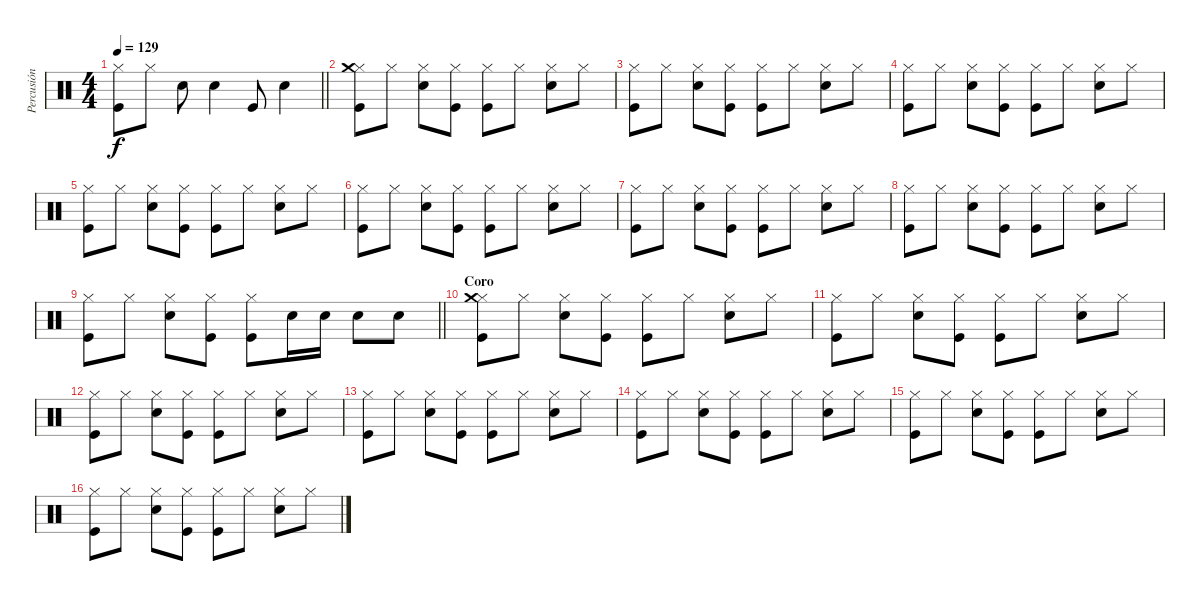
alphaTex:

\track ("Percusión" "Percusión") {instrument percussion}
\staff {score}
\articulation defaults
\ts (4 4)
\tempo 129
\clef neutral
\barLineRight lightlight
\ks c
("Hi-Hat (closed)" "Kick (hit)").8{dy f} "Hi-Hat (closed)".8 "Electric Snare (hit)".8 "Electric Snare (hit)".4 "Kick (hit)".8 "Electric Snare (hit)".4 |
\section ("" "")
("Hi-Hat (closed)" "Kick (hit)" "Crash medium (hit)").8 "Hi-Hat (closed)".8 ("Hi-Hat (closed)" "Electric Snare (hit)").8 ("Hi-Hat (closed)" "Kick (hit)").8 ("Hi-Hat (closed)" "Kick (hit)").8 "Hi-Hat (closed)".8 ("Hi-Hat (closed)" "Electric Snare (hit)").8 "Hi-Hat (closed)".8 |
("Hi-Hat (closed)" "Kick (hit)").8 "Hi-Hat (closed)".8 ("Hi-Hat (closed)" "Electric Snare (hit)").8 ("Hi-Hat (closed)" "Kick (hit)").8 ("Hi-Hat (closed)" "Kick (hit)").8 "Hi-Hat (closed)".8 ("Hi-Hat (closed)" "Electric Snare (hit)").8 "Hi-Hat (closed)".8 |
("Hi-Hat (closed)" "Kick (hit)").8 "Hi-Hat (closed)".8 ("Hi-Hat (closed)" "Electric Snare (hit)").8 ("Hi-Hat (closed)" "Kick (hit)").8 ("Hi-Hat (closed)" "Kick (hit)").8 "Hi-Hat (closed)".8 ("Hi-Hat (closed)" "Electric Snare (hit)").8 "Hi-Hat (closed)".8 |
("Hi-Hat (closed)" "Kick (hit)").8 "Hi-Hat (closed)".8 ("Hi-Hat (closed)" "Electric Snare (hit)").8 ("Hi-Hat (closed)" "Kick (hit)").8 ("Hi-Hat (closed)" "Kick (hit)").8 "Hi-Hat (closed)".8 ("Hi-Hat (closed)" "Electric Snare (hit)").8 "Hi-Hat (closed)".8 |
("Hi-Hat (closed)" "Kick (hit)").8 "Hi-Hat (closed)".8 ("Hi-Hat (closed)" "Electric Snare (hit)").8 ("Hi-Hat (closed)" "Kick (hit)").8 ("Hi-Hat (closed)" "Kick (hit)").8 "Hi-Hat (closed)".8 ("Hi-Hat (closed)" "Electric Snare (hit)").8 "Hi-Hat (closed)".8 |
("Hi-Hat (closed)" "Kick (hit)").8 "Hi-Hat (closed)".8 ("Hi-Hat (closed)" "Electric Snare (hit)").8 ("Hi-Hat (closed)" "Kick (hit)").8 ("Hi-Hat (closed)" "Kick (hit)").8 "Hi-Hat (closed)".8 ("Hi-Hat (closed)" "Electric Snare (hit)").8 "Hi-Hat (closed)".8 |
("Hi-Hat (closed)" "Kick (hit)").8 "Hi-Hat (closed)".8 ("Hi-Hat (closed)" "Electric Snare (hit)").8 ("Hi-Hat (closed)" "Kick (hit)").8 ("Hi-Hat (closed)" "Kick (hit)").8 "Hi-Hat (closed)".8 ("Hi-Hat (closed)" "Electric Snare (hit)").8 "Hi-Hat (closed)".8 |
\barLineRight lightlight
("Hi-Hat (closed)" "Kick (hit)").8 "Hi-Hat (closed)".8 ("Hi-Hat (closed)" "Electric Snare (hit)").8 ("Hi-Hat (closed)" "Kick (hit)").8 ("Hi-Hat (closed)" "Kick (hit)").8 "Electric Snare (hit)".16 "Electric Snare (hit)".16 "Electric Snare (hit)".8 "Electric Snare (hit)".8 |
\section ("" "Coro")
("Hi-Hat (closed)" "Kick (hit)" "Crash medium (hit)").8 "Hi-Hat (closed)".8 ("Hi-Hat (closed)" "Electric Snare (hit)").8 ("Hi-Hat (closed)" "Kick (hit)").8 ("Hi-Hat (closed)" "Kick (hit)").8 "Hi-Hat (closed)".8 ("Hi-Hat (closed)" "Electric Snare (hit)").8 "Hi-Hat (closed)".8 |
("Hi-Hat (closed)" "Kick (hit)").8 "Hi-Hat (closed)".8 ("Hi-Hat (closed)" "Electric Snare (hit)").8 ("Hi-Hat (closed)" "Kick (hit)").8 ("Hi-Hat (closed)" "Kick (hit)").8 "Hi-Hat (closed)".8 ("Hi-Hat (closed)" "Electric Snare (hit)").8 "Hi-Hat (closed)".8 |
("Hi-Hat (closed)" "Kick (hit)").8 "Hi-Hat (closed)".8 ("Hi-Hat (closed)" "Electric Snare (hit)").8 ("Hi-Hat (closed)" "Kick (hit)").8 ("Hi-Hat (closed)" "Kick (hit)").8 "Hi-Hat (closed)".8 ("Hi-Hat (closed)" "Electric Snare (hit)").8 "Hi-Hat (closed)".8 |
("Hi-Hat (closed)" "Kick (hit)").8 "Hi-Hat (closed)".8 ("Hi-Hat (closed)" "Electric Snare (hit)").8 ("Hi-Hat (closed)" "Kick (hit)").8 ("Hi-Hat (closed)" "Kick (hit)").8 "Hi-Hat (closed)".8 ("Hi-Hat (closed)" "Electric Snare (hit)").8 "Hi-Hat (closed)".8 |
("Hi-Hat (closed)" "Kick (hit)").8 "Hi-Hat (closed)".8 ("Hi-Hat (closed)" "Electric Snare (hit)").8 ("Hi-Hat (closed)" "Kick (hit)").8 ("Hi-Hat (closed)" "Kick (hit)").8 "Hi-Hat (closed)".8 ("Hi-Hat (closed)" "Electric Snare (hit)").8 "Hi-Hat (closed)".8 |
("Hi-Hat (closed)" "Kick (hit)").8 "Hi-Hat (closed)".8 ("Hi-Hat (closed)" "Electric Snare (hit)").8 ("Hi-Hat (closed)" "Kick (hit)").8 ("Hi-Hat (closed)" "Kick (hit)").8 "Hi-Hat (closed)".8 ("Hi-Hat (closed)" "Electric Snare (hit)").8 "Hi-Hat (closed)".8 |
("Hi-Hat (closed)" "Kick (hit)").8 "Hi-Hat (closed)".8 ("Hi-Hat (closed)" "Electric Snare (hit)").8 ("Hi-Hat (closed)" "Kick (hit)").8 ("Hi-Hat (closed)" "Kick (hit)").8 "Hi-Hat (closed)".8 ("Hi-Hat (closed)" "Electric Snare (hit)").8 "Hi-Hat (closed)".8
